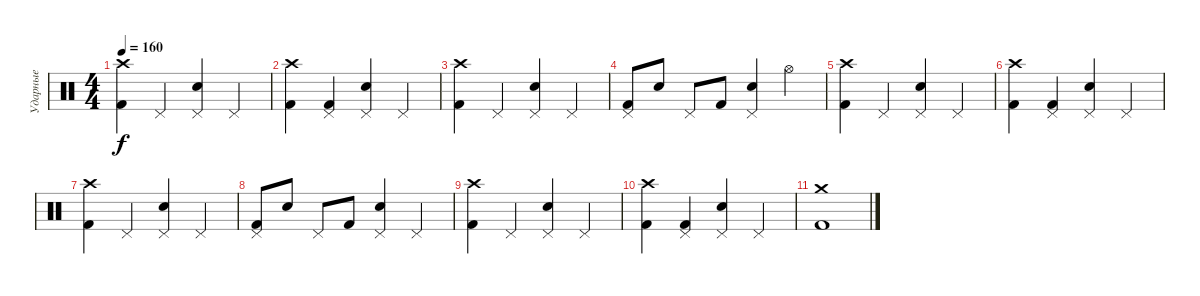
\track ("Ударные" "Ударные") {instrument percussion}
\staff {score}
\articulation defaults
\ts (4 4)
\tempo 160
\clef neutral
\ks c
("Crash high (hit)" "Kick (hit) 2").4{dy f} "Pedal Hi-Hat (hit)".4 ("Snare (hit) 2" "Pedal Hi-Hat (hit)").4 "Pedal Hi-Hat (hit)".4 |
("Crash high (hit)" "Kick (hit) 2").4 ("Pedal Hi-Hat (hit)" "Kick (hit) 2").4 ("Snare (hit) 2" "Pedal Hi-Hat (hit)").4 "Pedal Hi-Hat (hit)".4 |
("Crash high (hit)" "Kick (hit) 2").4 "Pedal Hi-Hat (hit)".4 ("Snare (hit) 2" "Pedal Hi-Hat (hit)").4 "Pedal Hi-Hat (hit)".4 |
("Pedal Hi-Hat (hit)" "Kick (hit) 2").8 "Snare (hit) 2".8 "Pedal Hi-Hat (hit)".8 "Kick (hit) 2".8 ("Snare (hit) 2" "Pedal Hi-Hat (hit)").4 "Hi-Hat (open)".4 |
("Crash high (hit)" "Kick (hit) 2").4 "Pedal Hi-Hat (hit)".4 ("Snare (hit) 2" "Pedal Hi-Hat (hit)").4 "Pedal Hi-Hat (hit)".4 |
("Crash high (hit)" "Kick (hit) 2").4 ("Pedal Hi-Hat (hit)" "Kick (hit) 2").4 ("Snare (hit) 2" "Pedal Hi-Hat (hit)").4 "Pedal Hi-Hat (hit)".4 |
("Crash high (hit)" "Kick (hit) 2").4 "Pedal Hi-Hat (hit)".4 ("Snare (hit) 2" "Pedal Hi-Hat (hit)").4 "Pedal Hi-Hat (hit)".4 |
("Pedal Hi-Hat (hit)" "Kick (hit) 2").8 "Snare (hit) 2".8 "Pedal Hi-Hat (hit)".8 "Kick (hit) 2".8 ("Snare (hit) 2" "Pedal Hi-Hat (hit)").4 "Pedal Hi-Hat (hit)".4 |
("Crash high (hit)" "Kick (hit) 2").4 "Pedal Hi-Hat (hit)".4 ("Snare (hit) 2" "Pedal Hi-Hat (hit)").4 "Pedal Hi-Hat (hit)".4 |
("Crash high (hit)" "Kick (hit) 2").4 ("Pedal Hi-Hat (hit)" "Kick (hit) 2").4 ("Snare (hit) 2" "Pedal Hi-Hat (hit)").4 "Pedal Hi-Hat (hit)".4 |
("Crash medium (hit)" "Kick (hit) 2").1
